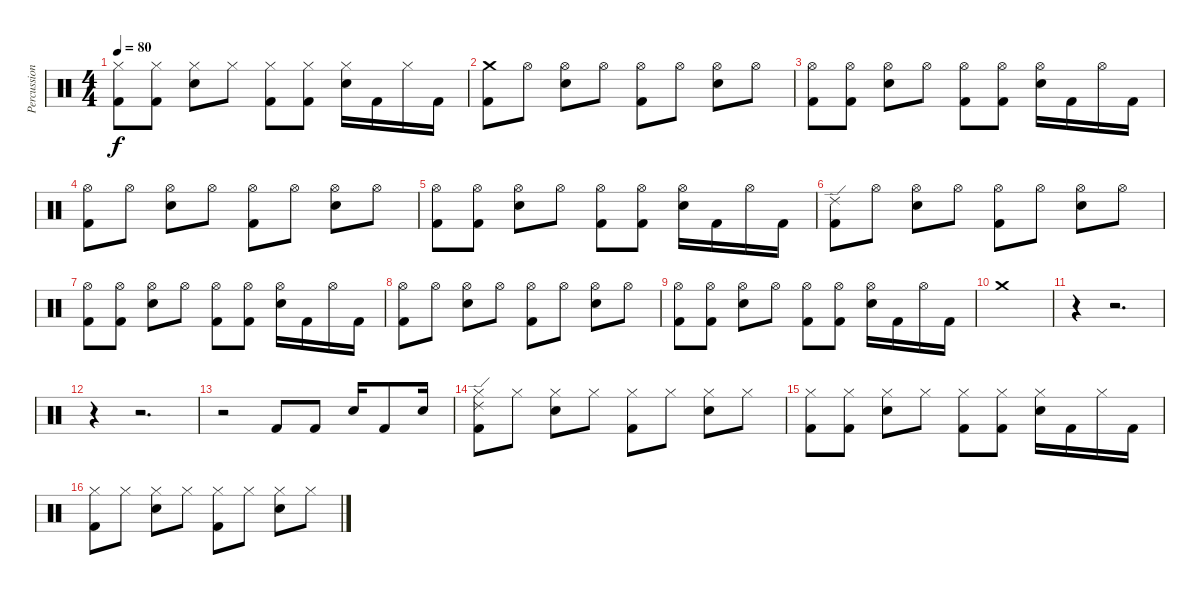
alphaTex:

\track ("Percussion" "Percussion") {instrument percussion}
\staff {score}
\articulation defaults
\ts (4 4)
\tempo 80
\clef neutral
\ks c
("Hi-Hat (closed)" "Kick (hit) 2").8{dy f} ("Hi-Hat (closed)" "Kick (hit) 2").8 ("Hi-Hat (closed)" "Snare (hit) 2").8 "Hi-Hat (closed)".8 ("Hi-Hat (closed)" "Kick (hit) 2").8 ("Hi-Hat (closed)" "Kick (hit) 2").8 ("Hi-Hat (closed)" "Snare (hit) 2").16 "Kick (hit) 2".16 "Hi-Hat (closed)".16 "Kick (hit) 2".16 |
("Kick (hit) 2" "Crash medium (hit)").8 "Hi-Hat (open)".8 ("Hi-Hat (open)" "Snare (hit) 2").8 "Hi-Hat (open)".8 ("Hi-Hat (open)" "Kick (hit) 2").8 "Hi-Hat (open)".8 ("Hi-Hat (open)" "Snare (hit) 2").8 "Hi-Hat (open)".8 |
("Hi-Hat (open)" "Kick (hit) 2").8 ("Hi-Hat (open)" "Kick (hit) 2").8 ("Hi-Hat (open)" "Snare (hit) 2").8 "Hi-Hat (open)".8 ("Hi-Hat (open)" "Kick (hit) 2").8 ("Hi-Hat (open)" "Kick (hit) 2").8 ("Hi-Hat (open)" "Snare (hit) 2").16 "Kick (hit) 2".16 "Hi-Hat (open)".16 "Kick (hit) 2".16 |
("Hi-Hat (open)" "Kick (hit) 2").8 "Hi-Hat (open)".8 ("Hi-Hat (open)" "Snare (hit) 2").8 "Hi-Hat (open)".8 ("Hi-Hat (open)" "Kick (hit) 2").8 "Hi-Hat (open)".8 ("Hi-Hat (open)" "Snare (hit) 2").8 "Hi-Hat (open)".8 |
("Hi-Hat (open)" "Kick (hit) 2").8 ("Hi-Hat (open)" "Kick (hit) 2").8 ("Hi-Hat (open)" "Snare (hit) 2").8 "Hi-Hat (open)".8 ("Hi-Hat (open)" "Kick (hit) 2").8 ("Hi-Hat (open)" "Kick (hit) 2").8 ("Hi-Hat (open)" "Snare (hit) 2").16 "Kick (hit) 2".16 "Hi-Hat (open)".16 "Kick (hit) 2".16 |
("Kick (hit) 2" "Ride (edge) 2").8 "Hi-Hat (open)".8 ("Hi-Hat (open)" "Snare (hit) 2").8 "Hi-Hat (open)".8 ("Hi-Hat (open)" "Kick (hit) 2").8 "Hi-Hat (open)".8 ("Hi-Hat (open)" "Snare (hit) 2").8 "Hi-Hat (open)".8 |
("Hi-Hat (open)" "Kick (hit) 2").8 ("Hi-Hat (open)" "Kick (hit) 2").8 ("Hi-Hat (open)" "Snare (hit) 2").8 "Hi-Hat (open)".8 ("Hi-Hat (open)" "Kick (hit) 2").8 ("Hi-Hat (open)" "Kick (hit) 2").8 ("Hi-Hat (open)" "Snare (hit) 2").16 "Kick (hit) 2".16 "Hi-Hat (open)".16 "Kick (hit) 2".16 |
("Hi-Hat (open)" "Kick (hit) 2").8 "Hi-Hat (open)".8 ("Hi-Hat (open)" "Snare (hit) 2").8 "Hi-Hat (open)".8 ("Hi-Hat (open)" "Kick (hit) 2").8 "Hi-Hat (open)".8 ("Hi-Hat (open)" "Snare (hit) 2").8 "Hi-Hat (open)".8 |
("Hi-Hat (open)" "Kick (hit) 2").8 ("Hi-Hat (open)" "Kick (hit) 2").8 ("Hi-Hat (open)" "Snare (hit) 2").8 "Hi-Hat (open)".8 ("Hi-Hat (open)" "Kick (hit) 2").8 ("Hi-Hat (open)" "Kick (hit) 2").8 ("Hi-Hat (open)" "Snare (hit) 2").16 "Kick (hit) 2".16 "Hi-Hat (open)".16 "Kick (hit) 2".16 |
"Crash medium (hit)".1 |
r.4 r.2{d} |
r.4 r.2{d} |
r.2 "Kick (hit) 2".8 "Kick (hit) 2".8 "Snare (hit) 2".16 "Kick (hit) 2".8 "Snare (hit) 2".16 |
("Hi-Hat (closed)" "Kick (hit) 2" "Ride (edge) 2").8 "Hi-Hat (closed)".8 ("Hi-Hat (closed)" "Snare (hit) 2").8 "Hi-Hat (closed)".8 ("Hi-Hat (closed)" "Kick (hit) 2").8 "Hi-Hat (closed)".8 ("Hi-Hat (closed)" "Snare (hit) 2").8 "Hi-Hat (closed)".8 |
("Hi-Hat (closed)" "Kick (hit) 2").8 ("Hi-Hat (closed)" "Kick (hit) 2").8 ("Hi-Hat (closed)" "Snare (hit) 2").8 "Hi-Hat (closed)".8 ("Hi-Hat (closed)" "Kick (hit) 2").8 ("Hi-Hat (closed)" "Kick (hit) 2").8 ("Hi-Hat (closed)" "Snare (hit) 2").16 "Kick (hit) 2".16 "Hi-Hat (closed)".16 "Kick (hit) 2".16 |
("Hi-Hat (closed)" "Kick (hit) 2").8 "Hi-Hat (closed)".8 ("Hi-Hat (closed)" "Snare (hit) 2").8 "Hi-Hat (closed)".8 ("Hi-Hat (closed)" "Kick (hit) 2").8 "Hi-Hat (closed)".8 ("Hi-Hat (closed)" "Snare (hit) 2").8 "Hi-Hat (closed)".8
